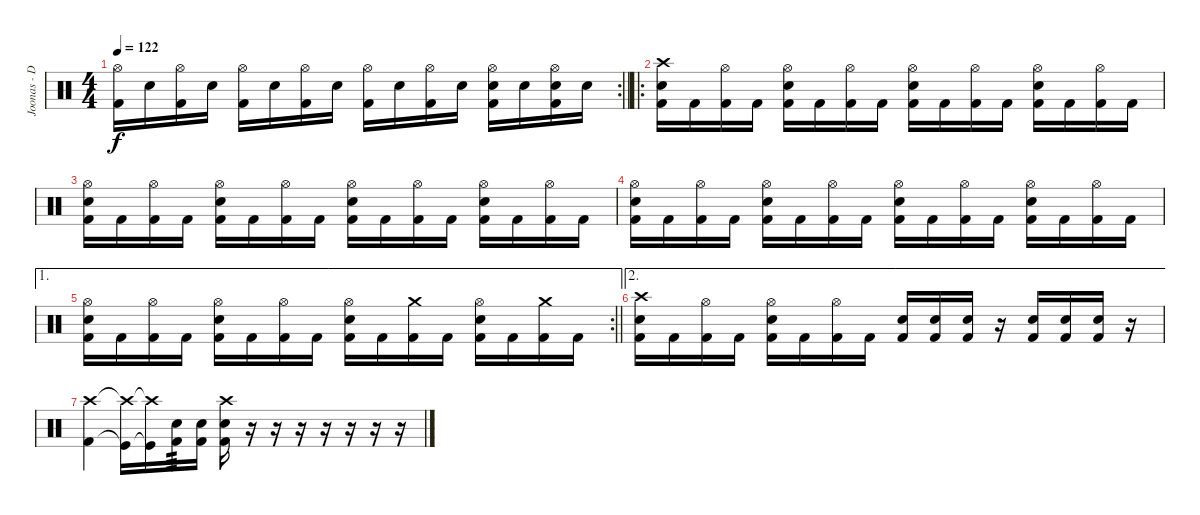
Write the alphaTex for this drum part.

\track ("Joonas - Drums" "Joonas - D") {instrument percussion}
\staff {score}
\articulation defaults
\rc 2
\ts (4 4)
\tempo 122
\clef neutral
\barLineRight lightlight
\ks c
("Hi-Hat (open)" "Kick (hit) 2").16{dy f} "Electric Snare (hit)".16 ("Hi-Hat (open)" "Kick (hit) 2").16 "Electric Snare (hit)".16 ("Hi-Hat (open)" "Kick (hit) 2").16 "Electric Snare (hit)".16 ("Hi-Hat (open)" "Kick (hit) 2").16 "Electric Snare (hit)".16 ("Hi-Hat (open)" "Kick (hit) 2").16 "Electric Snare (hit)".16 ("Hi-Hat (open)" "Kick (hit) 2").16 "Electric Snare (hit)".16 ("Hi-Hat (open)" "Electric Snare (hit)" "Kick (hit) 2").16 "Electric Snare (hit)".16 ("Hi-Hat (open)" "Electric Snare (hit)" "Kick (hit) 2").16 "Electric Snare (hit)".16 |
\ro
("Crash high (hit)" "Electric Snare (hit)" "Kick (hit) 2").16 "Kick (hit) 2".16 ("Hi-Hat (open)" "Kick (hit) 2").16 "Kick (hit) 2".16 ("Hi-Hat (open)" "Electric Snare (hit)" "Kick (hit) 2").16 "Kick (hit) 2".16 ("Hi-Hat (open)" "Kick (hit) 2").16 "Kick (hit) 2".16 ("Hi-Hat (open)" "Electric Snare (hit)" "Kick (hit) 2").16 "Kick (hit) 2".16 ("Hi-Hat (open)" "Kick (hit) 2").16 "Kick (hit) 2".16 ("Hi-Hat (open)" "Electric Snare (hit)" "Kick (hit) 2").16 "Kick (hit) 2".16 ("Hi-Hat (open)" "Kick (hit) 2").16 "Kick (hit) 2".16 |
("Hi-Hat (open)" "Electric Snare (hit)" "Kick (hit) 2").16 "Kick (hit) 2".16 ("Hi-Hat (open)" "Kick (hit) 2").16 "Kick (hit) 2".16 ("Hi-Hat (open)" "Electric Snare (hit)" "Kick (hit) 2").16 "Kick (hit) 2".16 ("Hi-Hat (open)" "Kick (hit) 2").16 "Kick (hit) 2".16 ("Hi-Hat (open)" "Electric Snare (hit)" "Kick (hit) 2").16 "Kick (hit) 2".16 ("Hi-Hat (open)" "Kick (hit) 2").16 "Kick (hit) 2".16 ("Hi-Hat (open)" "Electric Snare (hit)" "Kick (hit) 2").16 "Kick (hit) 2".16 ("Hi-Hat (open)" "Kick (hit) 2").16 "Kick (hit) 2".16 |
("Hi-Hat (open)" "Electric Snare (hit)" "Kick (hit) 2").16 "Kick (hit) 2".16 ("Hi-Hat (open)" "Kick (hit) 2").16 "Kick (hit) 2".16 ("Hi-Hat (open)" "Electric Snare (hit)" "Kick (hit) 2").16 "Kick (hit) 2".16 ("Hi-Hat (open)" "Kick (hit) 2").16 "Kick (hit) 2".16 ("Hi-Hat (open)" "Electric Snare (hit)" "Kick (hit) 2").16 "Kick (hit) 2".16 ("Hi-Hat (open)" "Kick (hit) 2").16 "Kick (hit) 2".16 ("Hi-Hat (open)" "Electric Snare (hit)" "Kick (hit) 2").16 "Kick (hit) 2".16 ("Hi-Hat (open)" "Kick (hit) 2").16 "Kick (hit) 2".16 |
\ae 1
\rc 2
\barLineRight lightlight
("Hi-Hat (open)" "Electric Snare (hit)" "Kick (hit) 2").16 "Kick (hit) 2".16 ("Hi-Hat (open)" "Kick (hit) 2").16 "Kick (hit) 2".16 ("Hi-Hat (open)" "Electric Snare (hit)" "Kick (hit) 2").16 "Kick (hit) 2".16 ("Hi-Hat (open)" "Kick (hit) 2").16 "Kick (hit) 2".16 ("Hi-Hat (open)" "Electric Snare (hit)" "Kick (hit) 2").16 "Kick (hit) 2".16 ("Crash medium (hit)" "Kick (hit) 2").16 "Kick (hit) 2".16 ("Hi-Hat (open)" "Electric Snare (hit)" "Kick (hit) 2").16 "Kick (hit) 2".16 ("Crash medium (hit)" "Kick (hit) 2").16 "Kick (hit) 2".16 |
\ae 2
("Crash high (hit)" "Electric Snare (hit)" "Kick (hit) 2").16 "Kick (hit) 2".16 ("Hi-Hat (open)" "Kick (hit) 2").16 "Kick (hit) 2".16 ("Hi-Hat (open)" "Electric Snare (hit)" "Kick (hit) 2").16 "Kick (hit) 2".16 ("Hi-Hat (open)" "Kick (hit) 2").16 "Kick (hit) 2".16 ("Electric Snare (hit)" "Kick (hit) 2").16 ("Electric Snare (hit)" "Kick (hit) 2").16 ("Electric Snare (hit)" "Kick (hit) 2").16 r.16 ("Electric Snare (hit)" "Kick (hit) 2").16 ("Electric Snare (hit)" "Kick (hit) 2").16 ("Electric Snare (hit)" "Kick (hit) 2").16 r.16 |
("Crash high (hit)" "Kick (hit) 2").4 ("Crash high (hit)"{t} "Kick (hit)"{t}).16 ("Crash high (hit)"{t} "Kick (hit)"{t}).16 ("Electric Snare (hit)" "Kick (hit) 2").16{tp 3} ("Electric Snare (hit)" "Kick (hit) 2").16 ("Crash high (hit)" "Electric Snare (hit)" "Kick (hit) 2").16 r.16 r.16 r.16 r.16 r.16 r.16 r.16
